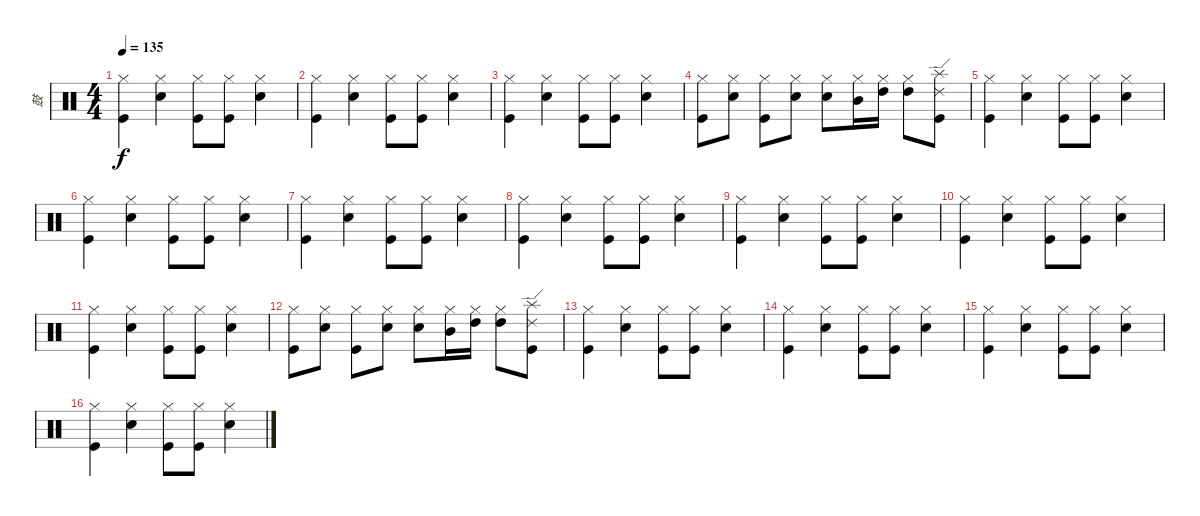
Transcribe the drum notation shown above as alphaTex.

\track ("鼓" "鼓") {instrument percussion}
\staff {score}
\articulation defaults
\ts (4 4)
\tempo 135
\clef neutral
\ks c
("Hi-Hat (closed)" "Kick (hit)").4{dy f} ("Hi-Hat (closed)" "Metronome (bell)").4 ("Hi-Hat (closed)" "Kick (hit)").8 ("Hi-Hat (closed)" "Kick (hit)").8 ("Hi-Hat (closed)" "Metronome (bell)").4 |
("Hi-Hat (closed)" "Kick (hit)").4 ("Hi-Hat (closed)" "Metronome (bell)").4 ("Hi-Hat (closed)" "Kick (hit)").8 ("Hi-Hat (closed)" "Kick (hit)").8 ("Hi-Hat (closed)" "Metronome (bell)").4 |
("Hi-Hat (closed)" "Kick (hit)").4 ("Hi-Hat (closed)" "Metronome (bell)").4 ("Hi-Hat (closed)" "Kick (hit)").8 ("Hi-Hat (closed)" "Kick (hit)").8 ("Hi-Hat (closed)" "Metronome (bell)").4 |
("Hi-Hat (closed)" "Kick (hit)").8 ("Hi-Hat (closed)" "Metronome (bell)").8 ("Hi-Hat (closed)" "Kick (hit)").8 ("Hi-Hat (closed)" "Metronome (bell)").8 ("Hi-Hat (closed)" "Metronome (bell)").8 ("Hi-Hat (closed)" "Mid Tom (hit)").16 ("Hi-Hat (closed)" "High Tom (hit)").16 ("Hi-Hat (closed)" "High Tom (hit)").8 ("Splash (hit)" "Ride (edge) 2" "Kick (hit)").8 |
("Hi-Hat (closed)" "Kick (hit)").4 ("Hi-Hat (closed)" "Metronome (bell)").4 ("Hi-Hat (closed)" "Kick (hit)").8 ("Hi-Hat (closed)" "Kick (hit)").8 ("Hi-Hat (closed)" "Metronome (bell)").4 |
("Hi-Hat (closed)" "Kick (hit)").4 ("Hi-Hat (closed)" "Metronome (bell)").4 ("Hi-Hat (closed)" "Kick (hit)").8 ("Hi-Hat (closed)" "Kick (hit)").8 ("Hi-Hat (closed)" "Metronome (bell)").4 |
("Hi-Hat (closed)" "Kick (hit)").4 ("Hi-Hat (closed)" "Metronome (bell)").4 ("Hi-Hat (closed)" "Kick (hit)").8 ("Hi-Hat (closed)" "Kick (hit)").8 ("Hi-Hat (closed)" "Metronome (bell)").4 |
("Hi-Hat (closed)" "Kick (hit)").4 ("Hi-Hat (closed)" "Metronome (bell)").4 ("Hi-Hat (closed)" "Kick (hit)").8 ("Hi-Hat (closed)" "Kick (hit)").8 ("Hi-Hat (closed)" "Metronome (bell)").4 |
("Hi-Hat (closed)" "Kick (hit)").4 ("Hi-Hat (closed)" "Metronome (bell)").4 ("Hi-Hat (closed)" "Kick (hit)").8 ("Hi-Hat (closed)" "Kick (hit)").8 ("Hi-Hat (closed)" "Metronome (bell)").4 |
("Hi-Hat (closed)" "Kick (hit)").4 ("Hi-Hat (closed)" "Metronome (bell)").4 ("Hi-Hat (closed)" "Kick (hit)").8 ("Hi-Hat (closed)" "Kick (hit)").8 ("Hi-Hat (closed)" "Metronome (bell)").4 |
("Hi-Hat (closed)" "Kick (hit)").4 ("Hi-Hat (closed)" "Metronome (bell)").4 ("Hi-Hat (closed)" "Kick (hit)").8 ("Hi-Hat (closed)" "Kick (hit)").8 ("Hi-Hat (closed)" "Metronome (bell)").4 |
("Hi-Hat (closed)" "Kick (hit)").8 ("Hi-Hat (closed)" "Metronome (bell)").8 ("Hi-Hat (closed)" "Kick (hit)").8 ("Hi-Hat (closed)" "Metronome (bell)").8 ("Hi-Hat (closed)" "Metronome (bell)").8 ("Hi-Hat (closed)" "Mid Tom (hit)").16 ("Hi-Hat (closed)" "High Tom (hit)").16 ("Hi-Hat (closed)" "High Tom (hit)").8 ("Splash (hit)" "Ride (edge) 2" "Kick (hit)").8 |
("Hi-Hat (closed)" "Kick (hit)").4 ("Hi-Hat (closed)" "Metronome (bell)").4 ("Hi-Hat (closed)" "Kick (hit)").8 ("Hi-Hat (closed)" "Kick (hit)").8 ("Hi-Hat (closed)" "Metronome (bell)").4 |
("Hi-Hat (closed)" "Kick (hit)").4 ("Hi-Hat (closed)" "Metronome (bell)").4 ("Hi-Hat (closed)" "Kick (hit)").8 ("Hi-Hat (closed)" "Kick (hit)").8 ("Hi-Hat (closed)" "Metronome (bell)").4 |
("Hi-Hat (closed)" "Kick (hit)").4 ("Hi-Hat (closed)" "Metronome (bell)").4 ("Hi-Hat (closed)" "Kick (hit)").8 ("Hi-Hat (closed)" "Kick (hit)").8 ("Hi-Hat (closed)" "Metronome (bell)").4 |
("Hi-Hat (closed)" "Kick (hit)").4 ("Hi-Hat (closed)" "Metronome (bell)").4 ("Hi-Hat (closed)" "Kick (hit)").8 ("Hi-Hat (closed)" "Kick (hit)").8 ("Hi-Hat (closed)" "Metronome (bell)").4
